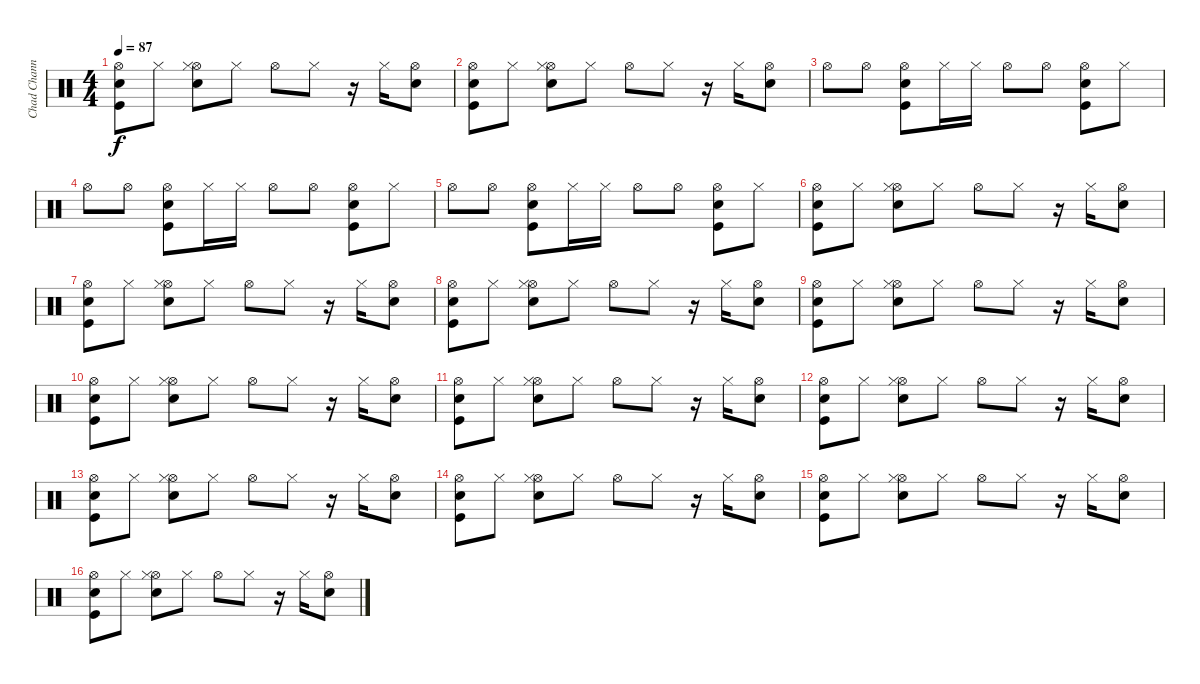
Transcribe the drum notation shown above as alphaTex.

\track ("Chad Channing" "Chad Chann") {instrument percussion}
\staff {score}
\articulation defaults
\ts (4 4)
\tempo 87
\clef neutral
\ks c
("Hi-Hat (open)" "Snare (hit) 2" "Kick (hit)").8{dy f} "Hi-Hat (closed)".8 ("Hi-Hat (open)" "Snare (hit) 2" "Hi-Hat (closed)").8 "Hi-Hat (closed)".8 "Hi-Hat (open)".8 "Hi-Hat (closed)".8 r.16 "Hi-Hat (closed)".16 ("Hi-Hat (open)" "Snare (hit) 2").8 |
("Hi-Hat (open)" "Snare (hit) 2" "Kick (hit)").8 "Hi-Hat (closed)".8 ("Hi-Hat (open)" "Snare (hit) 2" "Hi-Hat (closed)").8 "Hi-Hat (closed)".8 "Hi-Hat (open)".8 "Hi-Hat (closed)".8 r.16 "Hi-Hat (closed)".16 ("Hi-Hat (open)" "Snare (hit) 2").8 |
"Hi-Hat (open)".8 "Hi-Hat (open)".8 ("Snare (hit) 2" "Hi-Hat (open)" "Kick (hit)").8 "Hi-Hat (closed)".16 "Hi-Hat (closed)".16 "Hi-Hat (open)".8 "Hi-Hat (open)".8 ("Snare (hit) 2" "Hi-Hat (open)" "Kick (hit)").8 "Hi-Hat (closed)".8 |
"Hi-Hat (open)".8 "Hi-Hat (open)".8 ("Snare (hit) 2" "Hi-Hat (open)" "Kick (hit)").8 "Hi-Hat (closed)".16 "Hi-Hat (closed)".16 "Hi-Hat (open)".8 "Hi-Hat (open)".8 ("Snare (hit) 2" "Hi-Hat (open)" "Kick (hit)").8 "Hi-Hat (closed)".8 |
"Hi-Hat (open)".8 "Hi-Hat (open)".8 ("Snare (hit) 2" "Hi-Hat (open)" "Kick (hit)").8 "Hi-Hat (closed)".16 "Hi-Hat (closed)".16 "Hi-Hat (open)".8 "Hi-Hat (open)".8 ("Snare (hit) 2" "Hi-Hat (open)" "Kick (hit)").8 "Hi-Hat (closed)".8 |
("Hi-Hat (open)" "Snare (hit) 2" "Kick (hit)").8 "Hi-Hat (closed)".8 ("Hi-Hat (open)" "Snare (hit) 2" "Hi-Hat (closed)").8 "Hi-Hat (closed)".8 "Hi-Hat (open)".8 "Hi-Hat (closed)".8 r.16 "Hi-Hat (closed)".16 ("Hi-Hat (open)" "Snare (hit) 2").8 |
("Hi-Hat (open)" "Snare (hit) 2" "Kick (hit)").8 "Hi-Hat (closed)".8 ("Hi-Hat (open)" "Snare (hit) 2" "Hi-Hat (closed)").8 "Hi-Hat (closed)".8 "Hi-Hat (open)".8 "Hi-Hat (closed)".8 r.16 "Hi-Hat (closed)".16 ("Hi-Hat (open)" "Snare (hit) 2").8 |
("Hi-Hat (open)" "Snare (hit) 2" "Kick (hit)").8 "Hi-Hat (closed)".8 ("Hi-Hat (open)" "Snare (hit) 2" "Hi-Hat (closed)").8 "Hi-Hat (closed)".8 "Hi-Hat (open)".8 "Hi-Hat (closed)".8 r.16 "Hi-Hat (closed)".16 ("Hi-Hat (open)" "Snare (hit) 2").8 |
("Hi-Hat (open)" "Snare (hit) 2" "Kick (hit)").8 "Hi-Hat (closed)".8 ("Hi-Hat (open)" "Snare (hit) 2" "Hi-Hat (closed)").8 "Hi-Hat (closed)".8 "Hi-Hat (open)".8 "Hi-Hat (closed)".8 r.16 "Hi-Hat (closed)".16 ("Hi-Hat (open)" "Snare (hit) 2").8 |
("Hi-Hat (open)" "Snare (hit) 2" "Kick (hit)").8 "Hi-Hat (closed)".8 ("Hi-Hat (open)" "Snare (hit) 2" "Hi-Hat (closed)").8 "Hi-Hat (closed)".8 "Hi-Hat (open)".8 "Hi-Hat (closed)".8 r.16 "Hi-Hat (closed)".16 ("Hi-Hat (open)" "Snare (hit) 2").8 |
("Hi-Hat (open)" "Snare (hit) 2" "Kick (hit)").8 "Hi-Hat (closed)".8 ("Hi-Hat (open)" "Snare (hit) 2" "Hi-Hat (closed)").8 "Hi-Hat (closed)".8 "Hi-Hat (open)".8 "Hi-Hat (closed)".8 r.16 "Hi-Hat (closed)".16 ("Hi-Hat (open)" "Snare (hit) 2").8 |
("Hi-Hat (open)" "Snare (hit) 2" "Kick (hit)").8 "Hi-Hat (closed)".8 ("Hi-Hat (open)" "Snare (hit) 2" "Hi-Hat (closed)").8 "Hi-Hat (closed)".8 "Hi-Hat (open)".8 "Hi-Hat (closed)".8 r.16 "Hi-Hat (closed)".16 ("Hi-Hat (open)" "Snare (hit) 2").8 |
("Hi-Hat (open)" "Snare (hit) 2" "Kick (hit)").8 "Hi-Hat (closed)".8 ("Hi-Hat (open)" "Snare (hit) 2" "Hi-Hat (closed)").8 "Hi-Hat (closed)".8 "Hi-Hat (open)".8 "Hi-Hat (closed)".8 r.16 "Hi-Hat (closed)".16 ("Hi-Hat (open)" "Snare (hit) 2").8 |
("Hi-Hat (open)" "Snare (hit) 2" "Kick (hit)").8 "Hi-Hat (closed)".8 ("Hi-Hat (open)" "Snare (hit) 2" "Hi-Hat (closed)").8 "Hi-Hat (closed)".8 "Hi-Hat (open)".8 "Hi-Hat (closed)".8 r.16 "Hi-Hat (closed)".16 ("Hi-Hat (open)" "Snare (hit) 2").8 |
("Hi-Hat (open)" "Snare (hit) 2" "Kick (hit)").8 "Hi-Hat (closed)".8 ("Hi-Hat (open)" "Snare (hit) 2" "Hi-Hat (closed)").8 "Hi-Hat (closed)".8 "Hi-Hat (open)".8 "Hi-Hat (closed)".8 r.16 "Hi-Hat (closed)".16 ("Hi-Hat (open)" "Snare (hit) 2").8 |
("Hi-Hat (open)" "Snare (hit) 2" "Kick (hit)").8 "Hi-Hat (closed)".8 ("Hi-Hat (open)" "Snare (hit) 2" "Hi-Hat (closed)").8 "Hi-Hat (closed)".8 "Hi-Hat (open)".8 "Hi-Hat (closed)".8 r.16 "Hi-Hat (closed)".16 ("Hi-Hat (open)" "Snare (hit) 2").8
